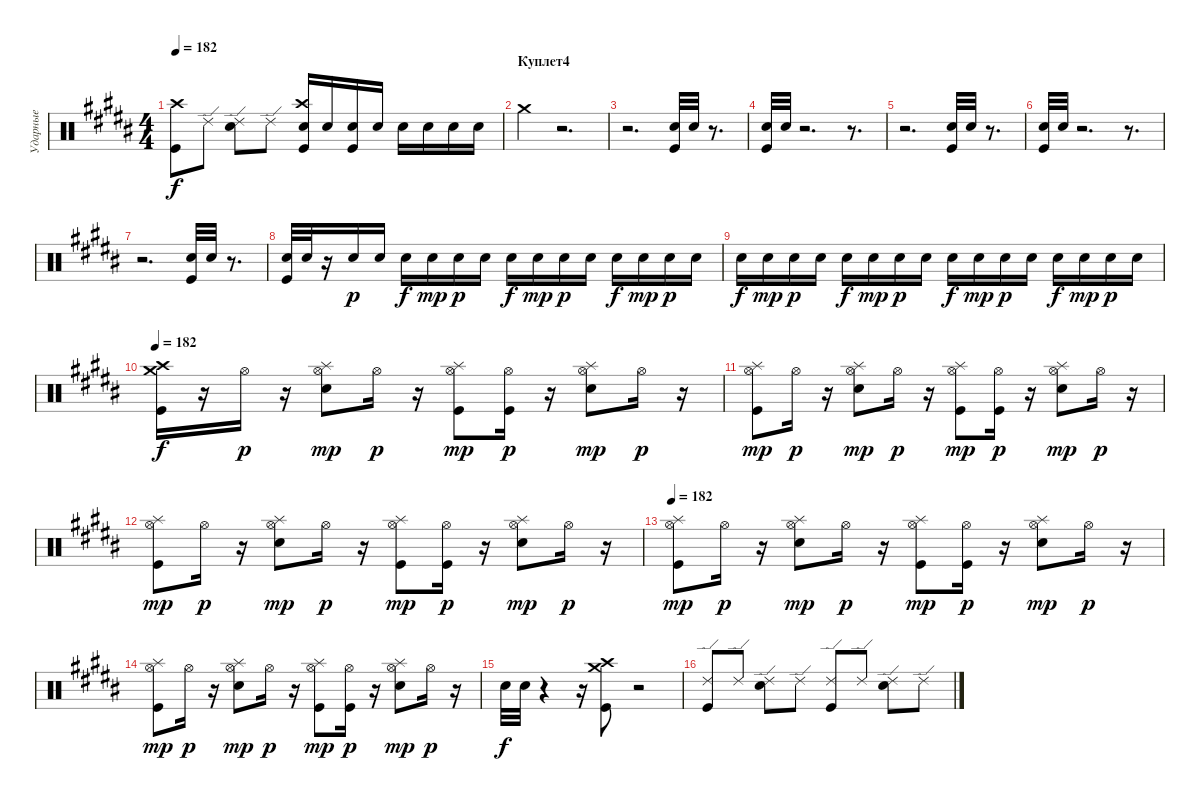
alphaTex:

\track ("Ударные" "Ударные") {instrument percussion}
\staff {score}
\articulation defaults
\ts (4 4)
\tempo 182
\clef neutral
\ks b
("Kick (hit)" "Crash high (hit)").8{dy f} "Ride (edge) 2".8 ("Electric Snare (hit)" "Ride (edge) 2").8 "Ride (edge) 2".8 ("Electric Snare (hit)" "Kick (hit)" "Crash high (hit)").16 "Electric Snare (hit)".16 ("Electric Snare (hit)" "Kick (hit)").16 "Electric Snare (hit)".16 "Electric Snare (hit)".16 "Electric Snare (hit)".16 "Electric Snare (hit)".16 "Electric Snare (hit)".16 |
\section ("" "Куплет4")
"Crash medium (hit)".4 r.2{d} |
r.2{d} ("Kick (hit)" "Electric Snare (hit)").32 "Electric Snare (hit)".32 r.8{d} |
("Kick (hit)" "Electric Snare (hit)").32 "Electric Snare (hit)".32 r.2{d} r.8{d} |
r.2{d} ("Kick (hit)" "Electric Snare (hit)").32 "Electric Snare (hit)".32 r.8{d} |
("Kick (hit)" "Electric Snare (hit)").32 "Electric Snare (hit)".32 r.2{d} r.8{d} |
r.2{d} ("Kick (hit)" "Electric Snare (hit)").32 "Electric Snare (hit)".32 r.8{d} |
("Kick (hit)" "Electric Snare (hit)").32 "Electric Snare (hit)".32 r.16 "Electric Snare (hit)".16{dy p} "Electric Snare (hit)".16{volume 9} "Electric Snare (hit)".16{dy f volume 9} "Electric Snare (hit)".16{dy mp volume 9} "Electric Snare (hit)".16{dy p volume 10} "Electric Snare (hit)".16{volume 10} "Electric Snare (hit)".16{dy f volume 10} "Electric Snare (hit)".16{dy mp volume 10} "Electric Snare (hit)".16{dy p volume 11} "Electric Snare (hit)".16{volume 11} "Electric Snare (hit)".16{dy f volume 11} "Electric Snare (hit)".16{dy mp volume 11} "Electric Snare (hit)".16{dy p volume 12} "Electric Snare (hit)".16{volume 12} |
"Electric Snare (hit)".16{dy f volume 12} "Electric Snare (hit)".16{dy mp volume 12} "Electric Snare (hit)".16{dy p volume 13} "Electric Snare (hit)".16{volume 13} "Electric Snare (hit)".16{dy f volume 13} "Electric Snare (hit)".16{dy mp volume 13} "Electric Snare (hit)".16{dy p volume 14} "Electric Snare (hit)".16{volume 14} "Electric Snare (hit)".16{dy f volume 14} "Electric Snare (hit)".16{dy mp volume 14} "Electric Snare (hit)".16{dy p volume 15} "Electric Snare (hit)".16{volume 15} "Electric Snare (hit)".16{dy f volume 15} "Electric Snare (hit)".16{dy mp volume 15} "Electric Snare (hit)".16{dy p volume 16} "Electric Snare (hit)".16{volume 16} |
\tempo 182
("Crash high (hit)" "Crash medium (hit)" "Kick (hit)").16{dy f} r.16 "Hi-Hat (open)".16{dy p} r.16 ("Splash (hit)" "Hi-Hat (open)" "Electric Snare (hit)").8{dy mp} "Hi-Hat (open)".16{dy p} r.16 ("Splash (hit)" "Hi-Hat (open)" "Kick (hit)").8{dy mp} ("Hi-Hat (open)" "Kick (hit)").16{dy p} r.16 ("Splash (hit)" "Hi-Hat (open)" "Electric Snare (hit)").8{dy mp} "Hi-Hat (open)".16{dy p} r.16 |
("Splash (hit)" "Hi-Hat (open)" "Kick (hit)").8{dy mp} "Hi-Hat (open)".16{dy p} r.16 ("Splash (hit)" "Hi-Hat (open)" "Electric Snare (hit)").8{dy mp} "Hi-Hat (open)".16{dy p} r.16 ("Splash (hit)" "Hi-Hat (open)" "Kick (hit)").8{dy mp} ("Hi-Hat (open)" "Kick (hit)").16{dy p} r.16 ("Splash (hit)" "Hi-Hat (open)" "Electric Snare (hit)").8{dy mp} "Hi-Hat (open)".16{dy p} r.16 |
("Splash (hit)" "Hi-Hat (open)" "Kick (hit)").8{dy mp} "Hi-Hat (open)".16{dy p} r.16 ("Splash (hit)" "Hi-Hat (open)" "Electric Snare (hit)").8{dy mp} "Hi-Hat (open)".16{dy p} r.16 ("Splash (hit)" "Hi-Hat (open)" "Kick (hit)").8{dy mp} ("Hi-Hat (open)" "Kick (hit)").16{dy p} r.16 ("Splash (hit)" "Hi-Hat (open)" "Electric Snare (hit)").8{dy mp} "Hi-Hat (open)".16{dy p} r.16 |
\tempo 182
("Splash (hit)" "Hi-Hat (open)" "Kick (hit)").8{dy mp} "Hi-Hat (open)".16{dy p} r.16 ("Splash (hit)" "Hi-Hat (open)" "Electric Snare (hit)").8{dy mp} "Hi-Hat (open)".16{dy p} r.16 ("Splash (hit)" "Hi-Hat (open)" "Kick (hit)").8{dy mp} ("Hi-Hat (open)" "Kick (hit)").16{dy p} r.16 ("Splash (hit)" "Hi-Hat (open)" "Electric Snare (hit)").8{dy mp} "Hi-Hat (open)".16{dy p} r.16 |
("Splash (hit)" "Hi-Hat (open)" "Kick (hit)").8{dy mp} "Hi-Hat (open)".16{dy p} r.16 ("Splash (hit)" "Hi-Hat (open)" "Electric Snare (hit)").8{dy mp} "Hi-Hat (open)".16{dy p} r.16 ("Splash (hit)" "Hi-Hat (open)" "Kick (hit)").8{dy mp} ("Hi-Hat (open)" "Kick (hit)").16{dy p} r.16 ("Splash (hit)" "Hi-Hat (open)" "Electric Snare (hit)").8{dy mp} "Hi-Hat (open)".16{dy p} r.16 |
"Electric Snare (hit)".32{dy f} "Electric Snare (hit)".32 r.4 r.16 ("Kick (hit)" "Crash high (hit)" "Crash medium (hit)").8 r.2 |
("Kick (hit)" "Ride (edge) 2").8 "Ride (edge) 2".8 ("Electric Snare (hit)" "Ride (edge) 2").8 "Ride (edge) 2".8 ("Kick (hit)" "Ride (edge) 2").8 "Ride (edge) 2".8 ("Electric Snare (hit)" "Ride (edge) 2").8 "Ride (edge) 2".8
